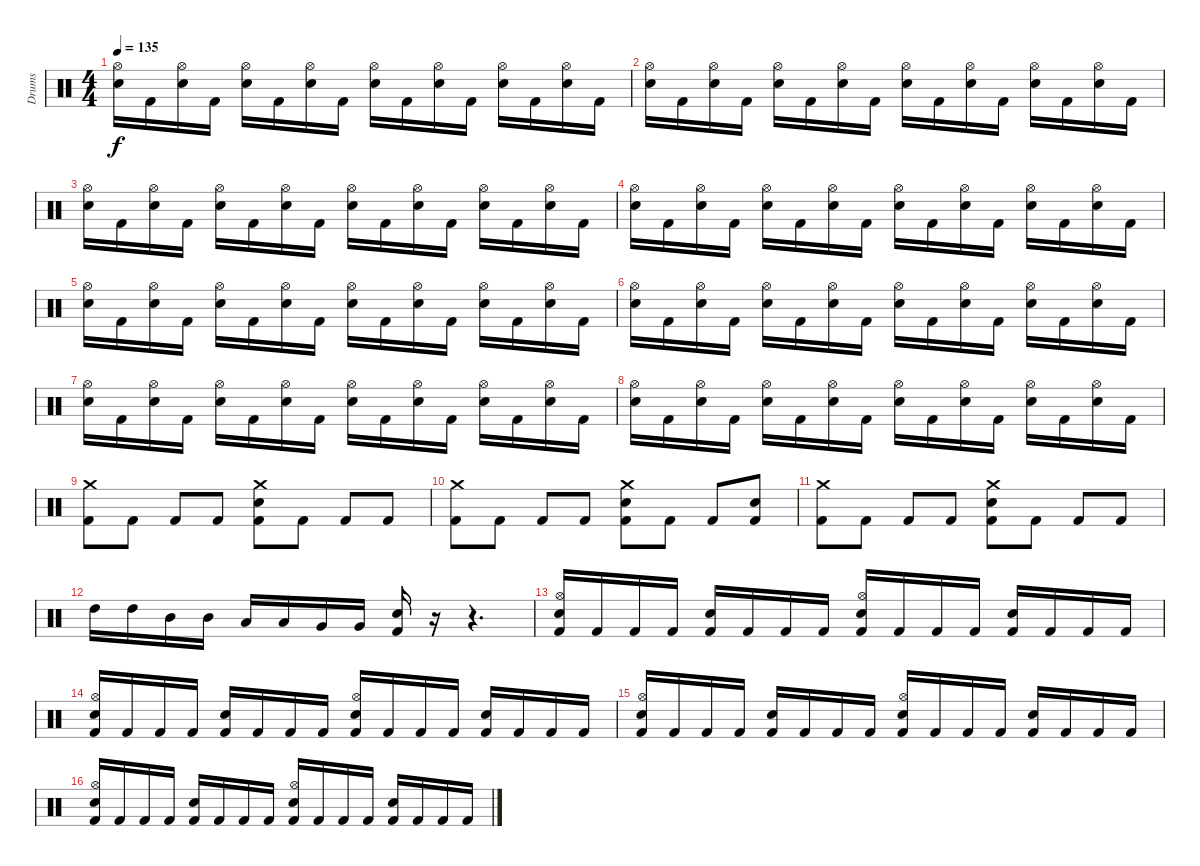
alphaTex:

\track ("Drums" "Drums") {instrument percussion}
\staff {score}
\articulation defaults
\ts (4 4)
\tempo 135
\clef neutral
\ks c
("Snare (hit) 2" "Hi-Hat (open)").16{dy f} "Kick (hit) 2".16 ("Snare (hit) 2" "Hi-Hat (open)").16 "Kick (hit) 2".16 ("Snare (hit) 2" "Hi-Hat (open)").16 "Kick (hit) 2".16 ("Snare (hit) 2" "Hi-Hat (open)").16 "Kick (hit) 2".16 ("Snare (hit) 2" "Hi-Hat (open)").16 "Kick (hit) 2".16 ("Snare (hit) 2" "Hi-Hat (open)").16 "Kick (hit) 2".16 ("Snare (hit) 2" "Hi-Hat (open)").16 "Kick (hit) 2".16 ("Snare (hit) 2" "Hi-Hat (open)").16 "Kick (hit) 2".16 |
("Snare (hit) 2" "Hi-Hat (open)").16 "Kick (hit) 2".16 ("Snare (hit) 2" "Hi-Hat (open)").16 "Kick (hit) 2".16 ("Snare (hit) 2" "Hi-Hat (open)").16 "Kick (hit) 2".16 ("Snare (hit) 2" "Hi-Hat (open)").16 "Kick (hit) 2".16 ("Snare (hit) 2" "Hi-Hat (open)").16 "Kick (hit) 2".16 ("Snare (hit) 2" "Hi-Hat (open)").16 "Kick (hit) 2".16 ("Snare (hit) 2" "Hi-Hat (open)").16 "Kick (hit) 2".16 ("Snare (hit) 2" "Hi-Hat (open)").16 "Kick (hit) 2".16 |
("Snare (hit) 2" "Hi-Hat (open)").16 "Kick (hit) 2".16 ("Snare (hit) 2" "Hi-Hat (open)").16 "Kick (hit) 2".16 ("Snare (hit) 2" "Hi-Hat (open)").16 "Kick (hit) 2".16 ("Snare (hit) 2" "Hi-Hat (open)").16 "Kick (hit) 2".16 ("Snare (hit) 2" "Hi-Hat (open)").16 "Kick (hit) 2".16 ("Snare (hit) 2" "Hi-Hat (open)").16 "Kick (hit) 2".16 ("Snare (hit) 2" "Hi-Hat (open)").16 "Kick (hit) 2".16 ("Snare (hit) 2" "Hi-Hat (open)").16 "Kick (hit) 2".16 |
("Snare (hit) 2" "Hi-Hat (open)").16 "Kick (hit) 2".16 ("Snare (hit) 2" "Hi-Hat (open)").16 "Kick (hit) 2".16 ("Snare (hit) 2" "Hi-Hat (open)").16 "Kick (hit) 2".16 ("Snare (hit) 2" "Hi-Hat (open)").16 "Kick (hit) 2".16 ("Snare (hit) 2" "Hi-Hat (open)").16 "Kick (hit) 2".16 ("Snare (hit) 2" "Hi-Hat (open)").16 "Kick (hit) 2".16 ("Snare (hit) 2" "Hi-Hat (open)").16 "Kick (hit) 2".16 ("Snare (hit) 2" "Hi-Hat (open)").16 "Kick (hit) 2".16 |
("Snare (hit) 2" "Hi-Hat (open)").16 "Kick (hit) 2".16 ("Snare (hit) 2" "Hi-Hat (open)").16 "Kick (hit) 2".16 ("Snare (hit) 2" "Hi-Hat (open)").16 "Kick (hit) 2".16 ("Snare (hit) 2" "Hi-Hat (open)").16 "Kick (hit) 2".16 ("Snare (hit) 2" "Hi-Hat (open)").16 "Kick (hit) 2".16 ("Snare (hit) 2" "Hi-Hat (open)").16 "Kick (hit) 2".16 ("Snare (hit) 2" "Hi-Hat (open)").16 "Kick (hit) 2".16 ("Snare (hit) 2" "Hi-Hat (open)").16 "Kick (hit) 2".16 |
("Snare (hit) 2" "Hi-Hat (open)").16 "Kick (hit) 2".16 ("Snare (hit) 2" "Hi-Hat (open)").16 "Kick (hit) 2".16 ("Snare (hit) 2" "Hi-Hat (open)").16 "Kick (hit) 2".16 ("Snare (hit) 2" "Hi-Hat (open)").16 "Kick (hit) 2".16 ("Snare (hit) 2" "Hi-Hat (open)").16 "Kick (hit) 2".16 ("Snare (hit) 2" "Hi-Hat (open)").16 "Kick (hit) 2".16 ("Snare (hit) 2" "Hi-Hat (open)").16 "Kick (hit) 2".16 ("Snare (hit) 2" "Hi-Hat (open)").16 "Kick (hit) 2".16 |
("Snare (hit) 2" "Hi-Hat (open)").16 "Kick (hit) 2".16 ("Snare (hit) 2" "Hi-Hat (open)").16 "Kick (hit) 2".16 ("Snare (hit) 2" "Hi-Hat (open)").16 "Kick (hit) 2".16 ("Snare (hit) 2" "Hi-Hat (open)").16 "Kick (hit) 2".16 ("Snare (hit) 2" "Hi-Hat (open)").16 "Kick (hit) 2".16 ("Snare (hit) 2" "Hi-Hat (open)").16 "Kick (hit) 2".16 ("Snare (hit) 2" "Hi-Hat (open)").16 "Kick (hit) 2".16 ("Snare (hit) 2" "Hi-Hat (open)").16 "Kick (hit) 2".16 |
("Snare (hit) 2" "Hi-Hat (open)").16 "Kick (hit) 2".16 ("Snare (hit) 2" "Hi-Hat (open)").16 "Kick (hit) 2".16 ("Snare (hit) 2" "Hi-Hat (open)").16 "Kick (hit) 2".16 ("Snare (hit) 2" "Hi-Hat (open)").16 "Kick (hit) 2".16 ("Snare (hit) 2" "Hi-Hat (open)").16 "Kick (hit) 2".16 ("Snare (hit) 2" "Hi-Hat (open)").16 "Kick (hit) 2".16 ("Snare (hit) 2" "Hi-Hat (open)").16 "Kick (hit) 2".16 ("Snare (hit) 2" "Hi-Hat (open)").16 "Kick (hit) 2".16 |
("Crash medium (hit)" "Kick (hit) 2").8 "Kick (hit) 2".8 "Kick (hit) 2".8 "Kick (hit) 2".8 ("Crash medium (hit)" "Kick (hit) 2" "Snare (hit) 2").8 "Kick (hit) 2".8 "Kick (hit) 2".8 "Kick (hit) 2".8 |
("Crash medium (hit)" "Kick (hit) 2").8 "Kick (hit) 2".8 "Kick (hit) 2".8 "Kick (hit) 2".8 ("Crash medium (hit)" "Kick (hit) 2" "Snare (hit) 2").8 "Kick (hit) 2".8 "Kick (hit) 2".8 ("Kick (hit) 2" "Snare (hit) 2").8 |
("Crash medium (hit)" "Kick (hit) 2").8 "Kick (hit) 2".8 "Kick (hit) 2".8 "Kick (hit) 2".8 ("Crash medium (hit)" "Kick (hit) 2" "Snare (hit) 2").8 "Kick (hit) 2".8 "Kick (hit) 2".8 "Kick (hit) 2".8 |
"High Tom (hit)".16 "High Tom (hit)".16 "Mid Tom (hit)".16 "Mid Tom (hit)".16 "Low Tom (hit)".16 "Low Tom (hit)".16 "Very Low Tom (hit)".16 "Very Low Tom (hit)".16 ("Snare (hit) 2" "Kick (hit) 2").16 r.16 r.4{d} |
("Snare (hit) 2" "Kick (hit) 2" "Hi-Hat (open)").16 "Kick (hit) 2".16 "Kick (hit) 2".16 "Kick (hit) 2".16 ("Snare (hit) 2" "Kick (hit) 2").16 "Kick (hit) 2".16 "Kick (hit) 2".16 "Kick (hit) 2".16 ("Snare (hit) 2" "Kick (hit) 2" "Hi-Hat (open)").16 "Kick (hit) 2".16 "Kick (hit) 2".16 "Kick (hit) 2".16 ("Snare (hit) 2" "Kick (hit) 2").16 "Kick (hit) 2".16 "Kick (hit) 2".16 "Kick (hit) 2".16 |
("Snare (hit) 2" "Kick (hit) 2" "Hi-Hat (open)").16 "Kick (hit) 2".16 "Kick (hit) 2".16 "Kick (hit) 2".16 ("Snare (hit) 2" "Kick (hit) 2").16 "Kick (hit) 2".16 "Kick (hit) 2".16 "Kick (hit) 2".16 ("Snare (hit) 2" "Kick (hit) 2" "Hi-Hat (open)").16 "Kick (hit) 2".16 "Kick (hit) 2".16 "Kick (hit) 2".16 ("Snare (hit) 2" "Kick (hit) 2").16 "Kick (hit) 2".16 "Kick (hit) 2".16 "Kick (hit) 2".16 |
("Snare (hit) 2" "Kick (hit) 2" "Hi-Hat (open)").16 "Kick (hit) 2".16 "Kick (hit) 2".16 "Kick (hit) 2".16 ("Snare (hit) 2" "Kick (hit) 2").16 "Kick (hit) 2".16 "Kick (hit) 2".16 "Kick (hit) 2".16 ("Snare (hit) 2" "Kick (hit) 2" "Hi-Hat (open)").16 "Kick (hit) 2".16 "Kick (hit) 2".16 "Kick (hit) 2".16 ("Snare (hit) 2" "Kick (hit) 2").16 "Kick (hit) 2".16 "Kick (hit) 2".16 "Kick (hit) 2".16 |
("Snare (hit) 2" "Kick (hit) 2" "Hi-Hat (open)").16 "Kick (hit) 2".16 "Kick (hit) 2".16 "Kick (hit) 2".16 ("Snare (hit) 2" "Kick (hit) 2").16 "Kick (hit) 2".16 "Kick (hit) 2".16 "Kick (hit) 2".16 ("Snare (hit) 2" "Kick (hit) 2" "Hi-Hat (open)").16 "Kick (hit) 2".16 "Kick (hit) 2".16 "Kick (hit) 2".16 ("Snare (hit) 2" "Kick (hit) 2").16 "Kick (hit) 2".16 "Kick (hit) 2".16 "Kick (hit) 2".16
